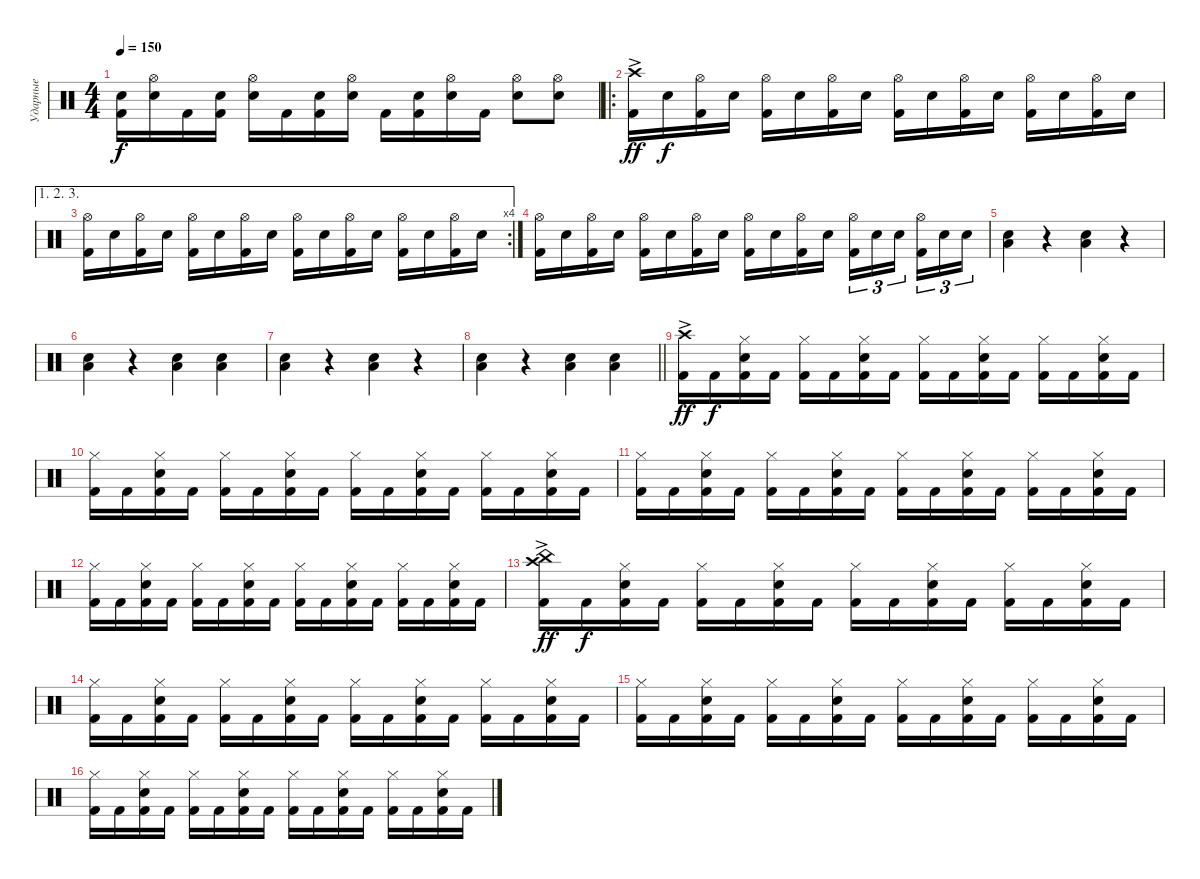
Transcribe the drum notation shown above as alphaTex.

\track ("Ударные" "Ударные") {instrument percussion}
\staff
\articulation defaults
\ts (4 4)
\tempo 150
\clef neutral
\ks c
("Kick (hit) 2" "Snare (hit) 2").16{dy f} ("Snare (hit) 2" "Hi-Hat (open)").16 "Kick (hit) 2".16 ("Kick (hit) 2" "Snare (hit) 2").16 ("Snare (hit) 2" "Hi-Hat (open)").16 "Kick (hit) 2".16 ("Kick (hit) 2" "Snare (hit) 2").16 ("Snare (hit) 2" "Hi-Hat (open)").16 "Kick (hit) 2".16 ("Kick (hit) 2" "Snare (hit) 2").16 ("Snare (hit) 2" "Hi-Hat (open)").16 "Kick (hit) 2".16 ("Snare (hit) 2" "Hi-Hat (open)").8 ("Snare (hit) 2" "Hi-Hat (open)").8 |
\ro
("Kick (hit) 2" "Crash high (hit)"{ac}).16{dy ff} "Snare (hit) 2".16{dy f} ("Kick (hit) 2" "Hi-Hat (open)").16 "Snare (hit) 2".16 ("Kick (hit) 2" "Hi-Hat (open)").16 "Snare (hit) 2".16 ("Kick (hit) 2" "Hi-Hat (open)").16 "Snare (hit) 2".16 ("Kick (hit) 2" "Hi-Hat (open)").16 "Snare (hit) 2".16 ("Kick (hit) 2" "Hi-Hat (open)").16 "Snare (hit) 2".16 ("Kick (hit) 2" "Hi-Hat (open)").16 "Snare (hit) 2".16 ("Kick (hit) 2" "Hi-Hat (open)").16 "Snare (hit) 2".16 |
\ae (1 2 3)
\rc 4
("Kick (hit) 2" "Hi-Hat (open)").16 "Snare (hit) 2".16 ("Kick (hit) 2" "Hi-Hat (open)").16 "Snare (hit) 2".16 ("Kick (hit) 2" "Hi-Hat (open)").16 "Snare (hit) 2".16 ("Kick (hit) 2" "Hi-Hat (open)").16 "Snare (hit) 2".16 ("Kick (hit) 2" "Hi-Hat (open)").16 "Snare (hit) 2".16 ("Kick (hit) 2" "Hi-Hat (open)").16 "Snare (hit) 2".16 ("Kick (hit) 2" "Hi-Hat (open)").16 "Snare (hit) 2".16 ("Kick (hit) 2" "Hi-Hat (open)").16 "Snare (hit) 2".16 |
("Kick (hit) 2" "Hi-Hat (open)").16 "Snare (hit) 2".16 ("Kick (hit) 2" "Hi-Hat (open)").16 "Snare (hit) 2".16 ("Kick (hit) 2" "Hi-Hat (open)").16 "Snare (hit) 2".16 ("Kick (hit) 2" "Hi-Hat (open)").16 "Snare (hit) 2".16 ("Kick (hit) 2" "Hi-Hat (open)").16 "Snare (hit) 2".16 ("Kick (hit) 2" "Hi-Hat (open)").16 "Snare (hit) 2".16 ("Kick (hit) 2" "Hi-Hat (open)").16{tu (3 2)} "Snare (hit) 2".16{tu (3 2)} "Snare (hit) 2".16{tu (3 2) beam splitsecondary} ("Kick (hit) 2" "Hi-Hat (open)").16{tu (3 2)} "Snare (hit) 2".16{tu (3 2)} "Snare (hit) 2".16{tu (3 2)} |
("Low Floor Tom (hit)" "Snare (hit) 2").4 r.4 ("Low Floor Tom (hit)" "Snare (hit) 2").4 r.4 |
("Low Floor Tom (hit)" "Snare (hit) 2").4 r.4 ("Low Floor Tom (hit)" "Snare (hit) 2").4 ("Low Floor Tom (hit)" "Snare (hit) 2").4 |
("Low Floor Tom (hit)" "Snare (hit) 2").4 r.4 ("Low Floor Tom (hit)" "Snare (hit) 2").4 r.4 |
\barLineRight lightlight
("Low Floor Tom (hit)" "Snare (hit) 2").4 r.4 ("Low Floor Tom (hit)" "Snare (hit) 2").4 ("Low Floor Tom (hit)" "Snare (hit) 2").4 |
("Kick (hit) 2" "Crash high (hit)"{ac}).16{dy ff} "Kick (hit) 2".16{dy f} ("Kick (hit) 2" "Snare (hit) 2" "Hi-Hat (closed)").16 "Kick (hit) 2".16 ("Kick (hit) 2" "Hi-Hat (closed)").16 "Kick (hit) 2".16 ("Kick (hit) 2" "Snare (hit) 2" "Hi-Hat (closed)").16 "Kick (hit) 2".16 ("Kick (hit) 2" "Hi-Hat (closed)").16 "Kick (hit) 2".16 ("Kick (hit) 2" "Snare (hit) 2" "Hi-Hat (closed)").16 "Kick (hit) 2".16 ("Kick (hit) 2" "Hi-Hat (closed)").16 "Kick (hit) 2".16 ("Kick (hit) 2" "Snare (hit) 2" "Hi-Hat (closed)").16 "Kick (hit) 2".16 |
("Kick (hit) 2" "Hi-Hat (closed)").16 "Kick (hit) 2".16 ("Kick (hit) 2" "Snare (hit) 2" "Hi-Hat (closed)").16 "Kick (hit) 2".16 ("Kick (hit) 2" "Hi-Hat (closed)").16 "Kick (hit) 2".16 ("Kick (hit) 2" "Snare (hit) 2" "Hi-Hat (closed)").16 "Kick (hit) 2".16 ("Kick (hit) 2" "Hi-Hat (closed)").16 "Kick (hit) 2".16 ("Kick (hit) 2" "Snare (hit) 2" "Hi-Hat (closed)").16 "Kick (hit) 2".16 ("Kick (hit) 2" "Hi-Hat (closed)").16 "Kick (hit) 2".16 ("Kick (hit) 2" "Snare (hit) 2" "Hi-Hat (closed)").16 "Kick (hit) 2".16 |
("Kick (hit) 2" "Hi-Hat (closed)").16 "Kick (hit) 2".16 ("Kick (hit) 2" "Snare (hit) 2" "Hi-Hat (closed)").16 "Kick (hit) 2".16 ("Kick (hit) 2" "Hi-Hat (closed)").16 "Kick (hit) 2".16 ("Kick (hit) 2" "Snare (hit) 2" "Hi-Hat (closed)").16 "Kick (hit) 2".16 ("Kick (hit) 2" "Hi-Hat (closed)").16 "Kick (hit) 2".16 ("Kick (hit) 2" "Snare (hit) 2" "Hi-Hat (closed)").16 "Kick (hit) 2".16 ("Kick (hit) 2" "Hi-Hat (closed)").16 "Kick (hit) 2".16 ("Kick (hit) 2" "Snare (hit) 2" "Hi-Hat (closed)").16 "Kick (hit) 2".16 |
("Kick (hit) 2" "Hi-Hat (closed)").16 "Kick (hit) 2".16 ("Kick (hit) 2" "Snare (hit) 2" "Hi-Hat (closed)").16 "Kick (hit) 2".16 ("Kick (hit) 2" "Hi-Hat (closed)").16 "Kick (hit) 2".16 ("Kick (hit) 2" "Snare (hit) 2" "Hi-Hat (closed)").16 "Kick (hit) 2".16 ("Kick (hit) 2" "Hi-Hat (closed)").16 "Kick (hit) 2".16 ("Kick (hit) 2" "Snare (hit) 2" "Hi-Hat (closed)").16 "Kick (hit) 2".16 ("Kick (hit) 2" "Hi-Hat (closed)").16 "Kick (hit) 2".16 ("Kick (hit) 2" "Snare (hit) 2" "Hi-Hat (closed)").16 "Kick (hit) 2".16 |
("Kick (hit) 2" "China (hit)" "Crash high (hit)"{ac}).16{dy ff} "Kick (hit) 2".16{dy f} ("Kick (hit) 2" "Snare (hit) 2" "Hi-Hat (closed)").16 "Kick (hit) 2".16 ("Kick (hit) 2" "Hi-Hat (closed)").16 "Kick (hit) 2".16 ("Kick (hit) 2" "Snare (hit) 2" "Hi-Hat (closed)").16 "Kick (hit) 2".16 ("Kick (hit) 2" "Hi-Hat (closed)").16 "Kick (hit) 2".16 ("Kick (hit) 2" "Snare (hit) 2" "Hi-Hat (closed)").16 "Kick (hit) 2".16 ("Kick (hit) 2" "Hi-Hat (closed)").16 "Kick (hit) 2".16 ("Kick (hit) 2" "Snare (hit) 2" "Hi-Hat (closed)").16 "Kick (hit) 2".16 |
("Kick (hit) 2" "Hi-Hat (closed)").16 "Kick (hit) 2".16 ("Kick (hit) 2" "Snare (hit) 2" "Hi-Hat (closed)").16 "Kick (hit) 2".16 ("Kick (hit) 2" "Hi-Hat (closed)").16 "Kick (hit) 2".16 ("Kick (hit) 2" "Snare (hit) 2" "Hi-Hat (closed)").16 "Kick (hit) 2".16 ("Kick (hit) 2" "Hi-Hat (closed)").16 "Kick (hit) 2".16 ("Kick (hit) 2" "Snare (hit) 2" "Hi-Hat (closed)").16 "Kick (hit) 2".16 ("Kick (hit) 2" "Hi-Hat (closed)").16 "Kick (hit) 2".16 ("Kick (hit) 2" "Snare (hit) 2" "Hi-Hat (closed)").16 "Kick (hit) 2".16 |
("Kick (hit) 2" "Hi-Hat (closed)").16 "Kick (hit) 2".16 ("Kick (hit) 2" "Snare (hit) 2" "Hi-Hat (closed)").16 "Kick (hit) 2".16 ("Kick (hit) 2" "Hi-Hat (closed)").16 "Kick (hit) 2".16 ("Kick (hit) 2" "Snare (hit) 2" "Hi-Hat (closed)").16 "Kick (hit) 2".16 ("Kick (hit) 2" "Hi-Hat (closed)").16 "Kick (hit) 2".16 ("Kick (hit) 2" "Snare (hit) 2" "Hi-Hat (closed)").16 "Kick (hit) 2".16 ("Kick (hit) 2" "Hi-Hat (closed)").16 "Kick (hit) 2".16 ("Kick (hit) 2" "Snare (hit) 2" "Hi-Hat (closed)").16 "Kick (hit) 2".16 |
("Kick (hit) 2" "Hi-Hat (closed)").16 "Kick (hit) 2".16 ("Kick (hit) 2" "Snare (hit) 2" "Hi-Hat (closed)").16 "Kick (hit) 2".16 ("Kick (hit) 2" "Hi-Hat (closed)").16 "Kick (hit) 2".16 ("Kick (hit) 2" "Snare (hit) 2" "Hi-Hat (closed)").16 "Kick (hit) 2".16 ("Kick (hit) 2" "Hi-Hat (closed)").16 "Kick (hit) 2".16 ("Kick (hit) 2" "Snare (hit) 2" "Hi-Hat (closed)").16 "Kick (hit) 2".16 ("Kick (hit) 2" "Hi-Hat (closed)").16 "Kick (hit) 2".16 ("Kick (hit) 2" "Snare (hit) 2" "Hi-Hat (closed)").16 "Kick (hit) 2".16
